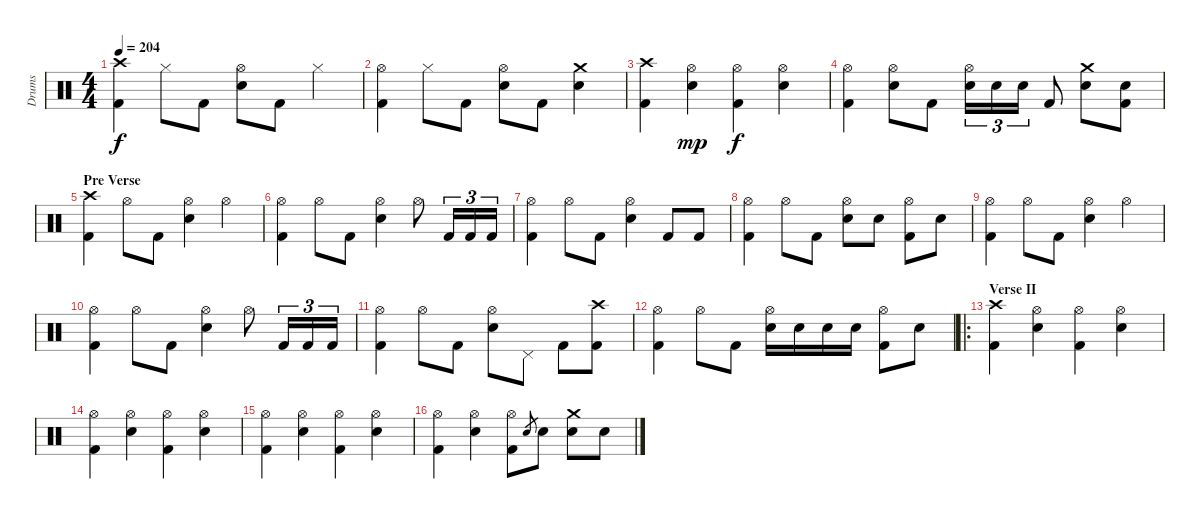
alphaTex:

\track ("Drums" "Drums") {instrument percussion}
\staff {score}
\articulation defaults
\ts (4 4)
\tempo 204
\clef neutral
\ks c
("Crash high (hit)" "Kick (hit) 2").4{dy f} "Hi-Hat (closed)".8 "Kick (hit) 2".8 ("Hi-Hat (open)" "Electric Snare (hit)").8 "Kick (hit) 2".8 "Hi-Hat (closed)".4 |
("Hi-Hat (open)" "Kick (hit) 2").4 "Hi-Hat (closed)".8 "Kick (hit) 2".8 ("Hi-Hat (open)" "Electric Snare (hit)").8 "Kick (hit) 2".8 ("Crash medium (hit)" "Electric Snare (hit)").4 |
("Crash high (hit)" "Kick (hit) 2").4 ("Hi-Hat (open)" "Electric Snare (hit)").4{dy mp} ("Hi-Hat (open)" "Kick (hit) 2").4{dy f} ("Hi-Hat (open)" "Electric Snare (hit)").4 |
("Hi-Hat (open)" "Kick (hit) 2").4 ("Hi-Hat (open)" "Electric Snare (hit)").8 "Kick (hit) 2".8 ("Hi-Hat (open)" "Electric Snare (hit)").16{tu (3 2)} "Electric Snare (hit)".16{tu (3 2)} "Electric Snare (hit)".16{tu (3 2)} "Kick (hit) 2".8 ("Crash medium (hit)" "Electric Snare (hit)").8 ("Electric Snare (hit)" "Kick (hit) 2").8 |
\section ("" "Pre Verse")
("Crash high (hit)" "Kick (hit) 2").4 "Hi-Hat (open)".8 "Kick (hit) 2".8 ("Hi-Hat (open)" "Electric Snare (hit)").4 "Hi-Hat (open)".4 |
("Hi-Hat (open)" "Kick (hit) 2").4 "Hi-Hat (open)".8 "Kick (hit) 2".8 ("Hi-Hat (open)" "Electric Snare (hit)").4 "Hi-Hat (open)".8 "Kick (hit) 2".16{tu (3 2)} "Kick (hit) 2".16{tu (3 2)} "Kick (hit) 2".16{tu (3 2)} |
("Hi-Hat (open)" "Kick (hit) 2").4 "Hi-Hat (open)".8 "Kick (hit) 2".8 ("Hi-Hat (open)" "Electric Snare (hit)").4 "Kick (hit) 2".8 "Kick (hit) 2".8 |
("Hi-Hat (open)" "Kick (hit) 2").4 "Hi-Hat (open)".8 "Kick (hit) 2".8 ("Hi-Hat (open)" "Electric Snare (hit)").8 "Electric Snare (hit)".8 ("Hi-Hat (open)" "Kick (hit) 2").8 "Electric Snare (hit)".8 |
("Hi-Hat (open)" "Kick (hit) 2").4 "Hi-Hat (open)".8 "Kick (hit) 2".8 ("Hi-Hat (open)" "Electric Snare (hit)").4 "Hi-Hat (open)".4 |
("Hi-Hat (open)" "Kick (hit) 2").4 "Hi-Hat (open)".8 "Kick (hit) 2".8 ("Hi-Hat (open)" "Electric Snare (hit)").4 "Hi-Hat (open)".8 "Kick (hit) 2".16{tu (3 2)} "Kick (hit) 2".16{tu (3 2)} "Kick (hit) 2".16{tu (3 2)} |
("Hi-Hat (open)" "Kick (hit) 2").4 "Hi-Hat (open)".8 "Kick (hit) 2".8 ("Hi-Hat (open)" "Electric Snare (hit)").8 "Pedal Hi-Hat (hit)".8 "Kick (hit) 2".8 ("Crash high (hit)" "Kick (hit) 2").8 |
("Hi-Hat (open)" "Kick (hit) 2").4 "Hi-Hat (open)".8 "Kick (hit) 2".8 ("Hi-Hat (open)" "Electric Snare (hit)").16 "Electric Snare (hit)".16 "Electric Snare (hit)".16 "Electric Snare (hit)".16 ("Hi-Hat (open)" "Kick (hit) 2").8 "Electric Snare (hit)".8 |
\ro
\section ("" "Verse II")
("Crash high (hit)" "Kick (hit) 2").4 ("Hi-Hat (open)" "Electric Snare (hit)").4 ("Hi-Hat (open)" "Kick (hit) 2").4 ("Hi-Hat (open)" "Electric Snare (hit)").4 |
("Hi-Hat (open)" "Kick (hit) 2").4 ("Hi-Hat (open)" "Electric Snare (hit)").4 ("Hi-Hat (open)" "Kick (hit) 2").4 ("Hi-Hat (open)" "Electric Snare (hit)").4 |
("Hi-Hat (open)" "Kick (hit) 2").4 ("Hi-Hat (open)" "Electric Snare (hit)").4 ("Hi-Hat (open)" "Kick (hit) 2").4 ("Hi-Hat (open)" "Electric Snare (hit)").4 |
("Hi-Hat (open)" "Kick (hit) 2").4 ("Hi-Hat (open)" "Electric Snare (hit)").4 ("Hi-Hat (open)" "Kick (hit) 2").8 "Electric Snare (hit)".8{gr} "Electric Snare (hit)".8 ("Crash medium (hit)" "Electric Snare (hit)").8 "Electric Snare (hit)".8
